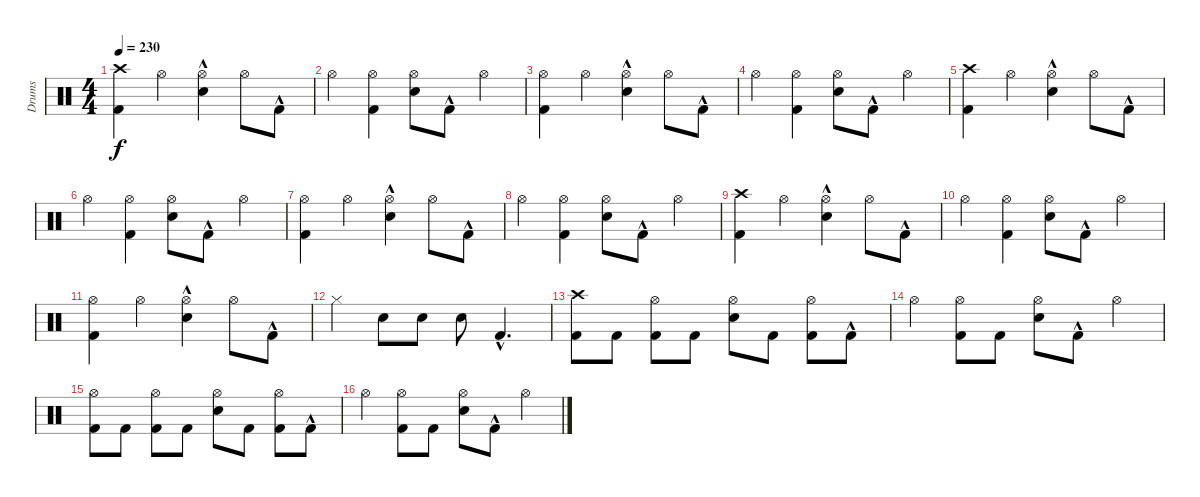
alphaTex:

\track ("Drums" "Drums") {instrument percussion}
\staff {score}
\articulation defaults
\ts (4 4)
\tempo 230
\clef neutral
\ks c
("Crash high (hit)" "Kick (hit) 2").4{dy f} "Hi-Hat (open)".4 ("Hi-Hat (open)" "Electric Snare (hit)"{hac}).4 "Hi-Hat (open)".8 "Kick (hit) 2"{hac}.8 |
"Hi-Hat (open)".4 ("Hi-Hat (open)" "Kick (hit) 2").4 ("Hi-Hat (open)" "Electric Snare (hit)").8 "Kick (hit) 2"{hac}.8 "Hi-Hat (open)".4 |
("Hi-Hat (open)" "Kick (hit) 2").4 "Hi-Hat (open)".4 ("Hi-Hat (open)" "Electric Snare (hit)"{hac}).4 "Hi-Hat (open)".8 "Kick (hit) 2"{hac}.8 |
"Hi-Hat (open)".4 ("Hi-Hat (open)" "Kick (hit) 2").4 ("Hi-Hat (open)" "Electric Snare (hit)").8 "Kick (hit) 2"{hac}.8 "Hi-Hat (open)".4 |
("Crash high (hit)" "Kick (hit) 2").4 "Hi-Hat (open)".4 ("Hi-Hat (open)" "Electric Snare (hit)"{hac}).4 "Hi-Hat (open)".8 "Kick (hit) 2"{hac}.8 |
"Hi-Hat (open)".4 ("Hi-Hat (open)" "Kick (hit) 2").4 ("Hi-Hat (open)" "Electric Snare (hit)").8 "Kick (hit) 2"{hac}.8 "Hi-Hat (open)".4 |
("Hi-Hat (open)" "Kick (hit) 2").4 "Hi-Hat (open)".4 ("Hi-Hat (open)" "Electric Snare (hit)"{hac}).4 "Hi-Hat (open)".8 "Kick (hit) 2"{hac}.8 |
"Hi-Hat (open)".4 ("Hi-Hat (open)" "Kick (hit) 2").4 ("Hi-Hat (open)" "Electric Snare (hit)").8 "Kick (hit) 2"{hac}.8 "Hi-Hat (open)".4 |
("Crash high (hit)" "Kick (hit) 2").4 "Hi-Hat (open)".4 ("Hi-Hat (open)" "Electric Snare (hit)"{hac}).4 "Hi-Hat (open)".8 "Kick (hit) 2"{hac}.8 |
"Hi-Hat (open)".4 ("Hi-Hat (open)" "Kick (hit) 2").4 ("Hi-Hat (open)" "Electric Snare (hit)").8 "Kick (hit) 2"{hac}.8 "Hi-Hat (open)".4 |
("Hi-Hat (open)" "Kick (hit) 2").4 "Hi-Hat (open)".4 ("Hi-Hat (open)" "Electric Snare (hit)"{hac}).4 "Hi-Hat (open)".8 "Kick (hit) 2"{hac}.8 |
"Hi-Hat (closed)".4 "Electric Snare (hit)".8 "Electric Snare (hit)".8 "Electric Snare (hit)".8 "Kick (hit) 2"{hac}.4{d} |
("Kick (hit) 2" "Crash high (hit)").8 "Kick (hit) 2".8 ("Hi-Hat (open)" "Kick (hit) 2").8 "Kick (hit) 2".8 ("Hi-Hat (open)" "Electric Snare (hit)").8 "Kick (hit) 2".8 ("Hi-Hat (open)" "Kick (hit) 2").8 "Kick (hit) 2"{hac}.8 |
"Hi-Hat (open)".4 ("Hi-Hat (open)" "Kick (hit) 2").8 "Kick (hit) 2".8 ("Hi-Hat (open)" "Electric Snare (hit)").8 "Kick (hit) 2"{hac}.8 "Hi-Hat (open)".4 |
("Hi-Hat (open)" "Kick (hit) 2").8 "Kick (hit) 2".8 ("Hi-Hat (open)" "Kick (hit) 2").8 "Kick (hit) 2".8 ("Hi-Hat (open)" "Electric Snare (hit)").8 "Kick (hit) 2".8 ("Hi-Hat (open)" "Kick (hit) 2").8 "Kick (hit) 2"{hac}.8 |
"Hi-Hat (open)".4 ("Hi-Hat (open)" "Kick (hit) 2").8 "Kick (hit) 2".8 ("Hi-Hat (open)" "Electric Snare (hit)").8 "Kick (hit) 2"{hac}.8 "Hi-Hat (open)".4
